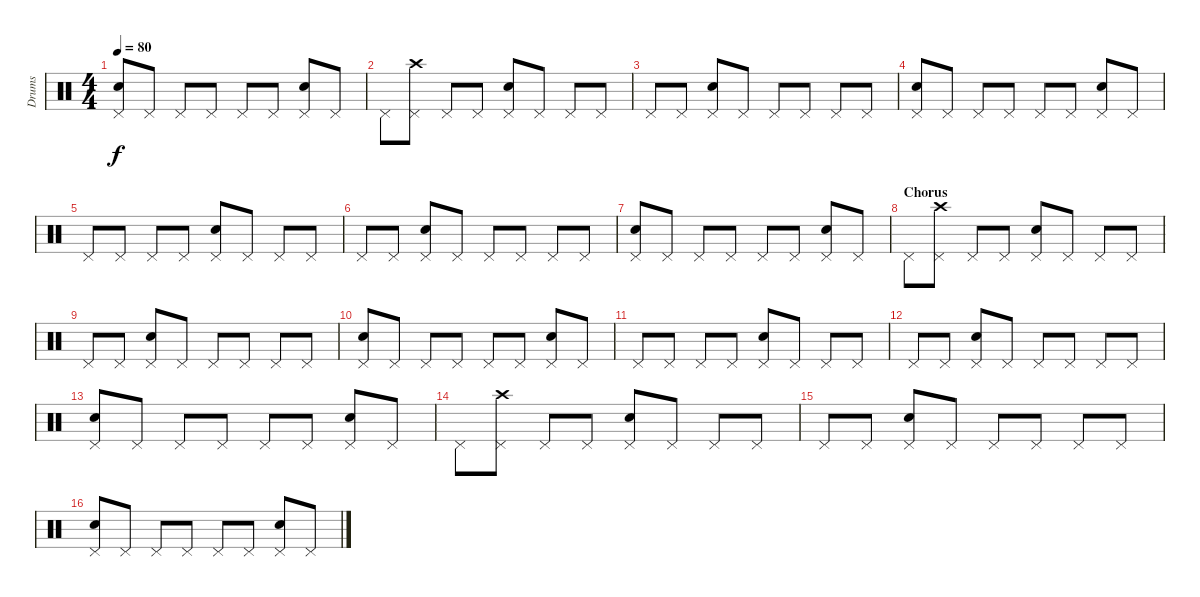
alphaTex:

\track ("Drums" "Drums") {instrument percussion}
\staff {score}
\articulation defaults
\ts (4 4)
\tempo 80
\clef neutral
\ks c
("Electric Snare (hit)" "Pedal Hi-Hat (hit)").8{dy f} "Pedal Hi-Hat (hit)".8 "Pedal Hi-Hat (hit)".8 "Pedal Hi-Hat (hit)".8 "Pedal Hi-Hat (hit)".8 "Pedal Hi-Hat (hit)".8 ("Electric Snare (hit)" "Pedal Hi-Hat (hit)").8 "Pedal Hi-Hat (hit)".8 |
"Pedal Hi-Hat (hit)".8 ("Crash high (hit)" "Pedal Hi-Hat (hit)").8 "Pedal Hi-Hat (hit)".8 "Pedal Hi-Hat (hit)".8 ("Electric Snare (hit)" "Pedal Hi-Hat (hit)").8 "Pedal Hi-Hat (hit)".8 "Pedal Hi-Hat (hit)".8 "Pedal Hi-Hat (hit)".8 |
"Pedal Hi-Hat (hit)".8 "Pedal Hi-Hat (hit)".8 ("Electric Snare (hit)" "Pedal Hi-Hat (hit)").8 "Pedal Hi-Hat (hit)".8 "Pedal Hi-Hat (hit)".8 "Pedal Hi-Hat (hit)".8 "Pedal Hi-Hat (hit)".8 "Pedal Hi-Hat (hit)".8 |
("Electric Snare (hit)" "Pedal Hi-Hat (hit)").8 "Pedal Hi-Hat (hit)".8 "Pedal Hi-Hat (hit)".8 "Pedal Hi-Hat (hit)".8 "Pedal Hi-Hat (hit)".8 "Pedal Hi-Hat (hit)".8 ("Electric Snare (hit)" "Pedal Hi-Hat (hit)").8 "Pedal Hi-Hat (hit)".8 |
"Pedal Hi-Hat (hit)".8 "Pedal Hi-Hat (hit)".8 "Pedal Hi-Hat (hit)".8 "Pedal Hi-Hat (hit)".8 ("Electric Snare (hit)" "Pedal Hi-Hat (hit)").8 "Pedal Hi-Hat (hit)".8 "Pedal Hi-Hat (hit)".8 "Pedal Hi-Hat (hit)".8 |
"Pedal Hi-Hat (hit)".8 "Pedal Hi-Hat (hit)".8 ("Electric Snare (hit)" "Pedal Hi-Hat (hit)").8 "Pedal Hi-Hat (hit)".8 "Pedal Hi-Hat (hit)".8 "Pedal Hi-Hat (hit)".8 "Pedal Hi-Hat (hit)".8 "Pedal Hi-Hat (hit)".8 |
("Electric Snare (hit)" "Pedal Hi-Hat (hit)").8 "Pedal Hi-Hat (hit)".8 "Pedal Hi-Hat (hit)".8 "Pedal Hi-Hat (hit)".8 "Pedal Hi-Hat (hit)".8 "Pedal Hi-Hat (hit)".8 ("Electric Snare (hit)" "Pedal Hi-Hat (hit)").8 "Pedal Hi-Hat (hit)".8 |
\section ("" "Chorus")
"Pedal Hi-Hat (hit)".8 ("Crash high (hit)" "Pedal Hi-Hat (hit)").8 "Pedal Hi-Hat (hit)".8 "Pedal Hi-Hat (hit)".8 ("Electric Snare (hit)" "Pedal Hi-Hat (hit)").8 "Pedal Hi-Hat (hit)".8 "Pedal Hi-Hat (hit)".8 "Pedal Hi-Hat (hit)".8 |
"Pedal Hi-Hat (hit)".8 "Pedal Hi-Hat (hit)".8 ("Electric Snare (hit)" "Pedal Hi-Hat (hit)").8 "Pedal Hi-Hat (hit)".8 "Pedal Hi-Hat (hit)".8 "Pedal Hi-Hat (hit)".8 "Pedal Hi-Hat (hit)".8 "Pedal Hi-Hat (hit)".8 |
("Electric Snare (hit)" "Pedal Hi-Hat (hit)").8 "Pedal Hi-Hat (hit)".8 "Pedal Hi-Hat (hit)".8 "Pedal Hi-Hat (hit)".8 "Pedal Hi-Hat (hit)".8 "Pedal Hi-Hat (hit)".8 ("Electric Snare (hit)" "Pedal Hi-Hat (hit)").8 "Pedal Hi-Hat (hit)".8 |
"Pedal Hi-Hat (hit)".8 "Pedal Hi-Hat (hit)".8 "Pedal Hi-Hat (hit)".8 "Pedal Hi-Hat (hit)".8 ("Electric Snare (hit)" "Pedal Hi-Hat (hit)").8 "Pedal Hi-Hat (hit)".8 "Pedal Hi-Hat (hit)".8 "Pedal Hi-Hat (hit)".8 |
"Pedal Hi-Hat (hit)".8 "Pedal Hi-Hat (hit)".8 ("Electric Snare (hit)" "Pedal Hi-Hat (hit)").8 "Pedal Hi-Hat (hit)".8 "Pedal Hi-Hat (hit)".8 "Pedal Hi-Hat (hit)".8 "Pedal Hi-Hat (hit)".8 "Pedal Hi-Hat (hit)".8 |
("Electric Snare (hit)" "Pedal Hi-Hat (hit)").8 "Pedal Hi-Hat (hit)".8 "Pedal Hi-Hat (hit)".8 "Pedal Hi-Hat (hit)".8 "Pedal Hi-Hat (hit)".8 "Pedal Hi-Hat (hit)".8 ("Electric Snare (hit)" "Pedal Hi-Hat (hit)").8 "Pedal Hi-Hat (hit)".8 |
"Pedal Hi-Hat (hit)".8 ("Crash high (hit)" "Pedal Hi-Hat (hit)").8 "Pedal Hi-Hat (hit)".8 "Pedal Hi-Hat (hit)".8 ("Electric Snare (hit)" "Pedal Hi-Hat (hit)").8 "Pedal Hi-Hat (hit)".8 "Pedal Hi-Hat (hit)".8 "Pedal Hi-Hat (hit)".8 |
"Pedal Hi-Hat (hit)".8 "Pedal Hi-Hat (hit)".8 ("Electric Snare (hit)" "Pedal Hi-Hat (hit)").8 "Pedal Hi-Hat (hit)".8 "Pedal Hi-Hat (hit)".8 "Pedal Hi-Hat (hit)".8 "Pedal Hi-Hat (hit)".8 "Pedal Hi-Hat (hit)".8 |
("Electric Snare (hit)" "Pedal Hi-Hat (hit)").8 "Pedal Hi-Hat (hit)".8 "Pedal Hi-Hat (hit)".8 "Pedal Hi-Hat (hit)".8 "Pedal Hi-Hat (hit)".8 "Pedal Hi-Hat (hit)".8 ("Electric Snare (hit)" "Pedal Hi-Hat (hit)").8 "Pedal Hi-Hat (hit)".8
